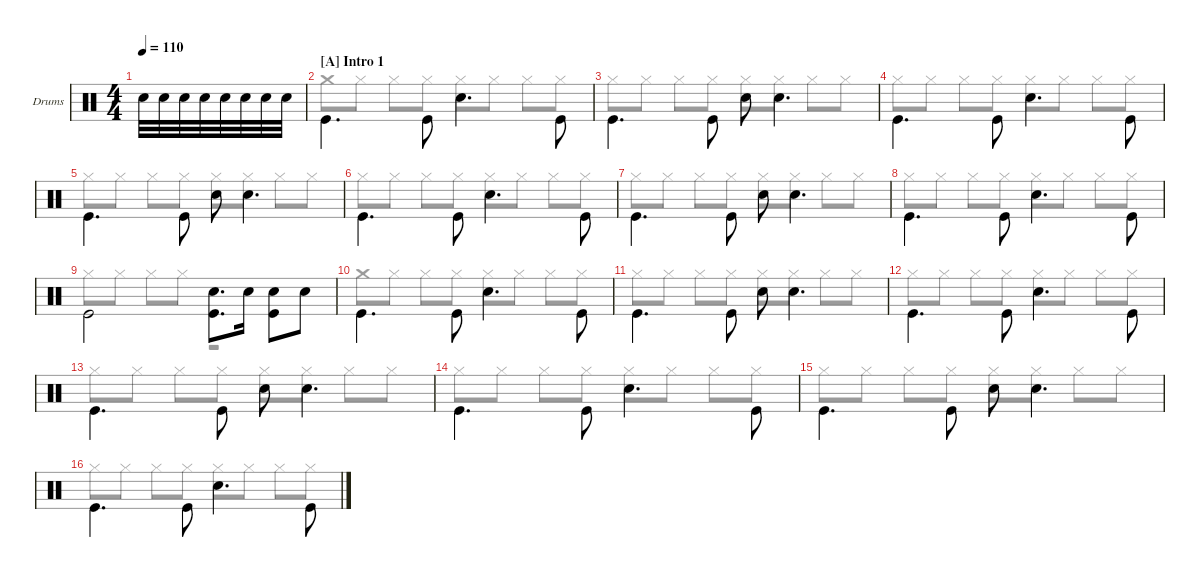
\hideDynamics
\bracketExtendMode groupsimilarinstruments
\multiBarRest
\firstSystemTrackNameOrientation horizontal
\otherSystemsTrackNameOrientation horizontal
\track ("Drumkit" "Drums") {multiBarRest instrument percussion}
\staff {score}
\articulation defaults
\voice
\ts (4 4)
\ac
\tempo 110
\clef neutral
\scale
0.315403
\ks c "Snare (hit) 2".32{dy f} "Snare (hit) 2".32 "Snare (hit) 2".32 "Snare (hit) 2".32 "Snare (hit) 2".32 "Snare (hit) 2".32 "Snare (hit) 2".32 "Snare (hit) 2".32
|
\section ("A" "Intro 1")
\scale
0.342298 "Kick (hit)".4{d beam invert} "Kick (hit)".8{beam invert} "Snare (hit) 2".4{d beam invert} "Kick (hit)".8{beam invert} |
\scale
0.342298 "Kick (hit)".4{d beam invert} "Kick (hit)".8{beam invert} "Snare (hit) 2".8{beam invert} "Snare (hit) 2".4{d beam invert} |
"Kick (hit)".4{d beam invert} "Kick (hit)".8{beam invert} "Snare (hit) 2".4{d beam invert} "Kick (hit)".8{beam invert} |
"Kick (hit)".4{d beam invert} "Kick (hit)".8{beam invert} "Snare (hit) 2".8{beam invert} "Snare (hit) 2".4{d beam invert} |
"Kick (hit)".4{d beam invert} "Kick (hit)".8{beam invert} "Snare (hit) 2".4{d beam invert} "Kick (hit)".8{beam invert} |
"Kick (hit)".4{d beam invert} "Kick (hit)".8{beam invert} "Snare (hit) 2".8{beam invert} "Snare (hit) 2".4{d beam invert} |
"Kick (hit)".4{d beam invert} "Kick (hit)".8{beam invert} "Snare (hit) 2".4{d beam invert} "Kick (hit)".8{beam invert} |
"Kick (hit)".2{beam invert} ("Kick (hit)" "Snare (hit) 2").8{d beam invert} "Snare (hit) 2".16 ("Kick (hit)" "Snare (hit) 2").8{beam invert} "Snare (hit) 2".8 |
"Kick (hit)".4{d beam invert} "Kick (hit)".8 "Snare (hit) 2".4{d beam invert} "Kick (hit)".8{beam invert} |
"Kick (hit)".4{d beam invert} "Kick (hit)".8 "Snare (hit) 2".8{beam invert} "Snare (hit) 2".4{d beam invert} |
"Kick (hit)".4{d beam invert} "Kick (hit)".8{beam invert} "Snare (hit) 2".4{d beam invert} "Kick (hit)".8{beam invert} |
"Kick (hit)".4{d beam invert} "Kick (hit)".8{beam invert} "Snare (hit) 2".8{beam invert} "Snare (hit) 2".4{d beam invert} |
"Kick (hit)".4{d beam invert} "Kick (hit)".8{beam invert} "Snare (hit) 2".4{d beam invert} "Kick (hit)".8{beam invert} |
"Kick (hit)".4{d beam invert} "Kick (hit)".8{beam invert} "Snare (hit) 2".8{beam invert} "Snare (hit) 2".4{d beam invert} |
"Kick (hit)".4{d beam invert} "Kick (hit)".8{beam invert} "Snare (hit) 2".4{d beam invert} "Kick (hit)".8{beam invert}
\voice
\clef neutral
\ottava regular
\simile none
\scale
0.315403
\ks c
|
\scale
0.342298 |
\scale
0.342298 |
|
|
|
|
|
|
|
|
|
|
|
|
\voice
\clef neutral
\ottava regular
\simile none
\scale
0.315403
\ks c
|
\scale
0.342298 |
\scale
0.342298 |
|
|
|
|
|
|
|
|
|
|
|
|
\voice
\clef neutral
\ottava regular
\simile none
\scale
0.315403
\ks c
|
\scale
0.342298 "Crash medium (hit)".8 "Hi-Hat (closed)".8 "Hi-Hat (closed)".8 "Hi-Hat (closed)".8 "Hi-Hat (closed)".8 "Hi-Hat (closed)".8 "Hi-Hat (closed)".8 "Hi-Hat (closed)".8 |
\scale
0.342298 "Hi-Hat (closed)".8 "Hi-Hat (closed)".8 "Hi-Hat (closed)".8 "Hi-Hat (closed)".8 "Hi-Hat (closed)".8 "Hi-Hat (closed)".8 "Hi-Hat (closed)".8 "Hi-Hat (closed)".8 |
"Hi-Hat (closed)".8 "Hi-Hat (closed)".8 "Hi-Hat (closed)".8 "Hi-Hat (closed)".8 "Hi-Hat (closed)".8 "Hi-Hat (closed)".8 "Hi-Hat (closed)".8 "Hi-Hat (closed)".8 |
"Hi-Hat (closed)".8 "Hi-Hat (closed)".8 "Hi-Hat (closed)".8 "Hi-Hat (closed)".8 "Hi-Hat (closed)".8 "Hi-Hat (closed)".8 "Hi-Hat (closed)".8 "Hi-Hat (closed)".8 |
"Hi-Hat (closed)".8 "Hi-Hat (closed)".8 "Hi-Hat (closed)".8 "Hi-Hat (closed)".8 "Hi-Hat (closed)".8 "Hi-Hat (closed)".8 "Hi-Hat (closed)".8 "Hi-Hat (closed)".8 |
"Hi-Hat (closed)".8 "Hi-Hat (closed)".8 "Hi-Hat (closed)".8 "Hi-Hat (closed)".8 "Hi-Hat (closed)".8 "Hi-Hat (closed)".8 "Hi-Hat (closed)".8 "Hi-Hat (closed)".8 |
"Hi-Hat (closed)".8 "Hi-Hat (closed)".8 "Hi-Hat (closed)".8 "Hi-Hat (closed)".8 "Hi-Hat (closed)".8 "Hi-Hat (closed)".8 "Hi-Hat (closed)".8 "Hi-Hat (closed)".8 |
"Hi-Hat (closed)".8 "Hi-Hat (closed)".8 "Hi-Hat (closed)".8 "Hi-Hat (closed)".8 r.2 |
"Crash medium (hit)".8 "Hi-Hat (closed)".8 "Hi-Hat (closed)".8 "Hi-Hat (closed)".8 "Hi-Hat (closed)".8 "Hi-Hat (closed)".8 "Hi-Hat (closed)".8 "Hi-Hat (closed)".8 |
"Hi-Hat (closed)".8 "Hi-Hat (closed)".8 "Hi-Hat (closed)".8 "Hi-Hat (closed)".8 "Hi-Hat (closed)".8 "Hi-Hat (closed)".8 "Hi-Hat (closed)".8 "Hi-Hat (closed)".8 |
"Hi-Hat (closed)".8 "Hi-Hat (closed)".8 "Hi-Hat (closed)".8 "Hi-Hat (closed)".8 "Hi-Hat (closed)".8 "Hi-Hat (closed)".8 "Hi-Hat (closed)".8 "Hi-Hat (closed)".8 |
"Hi-Hat (closed)".8 "Hi-Hat (closed)".8 "Hi-Hat (closed)".8 "Hi-Hat (closed)".8 "Hi-Hat (closed)".8 "Hi-Hat (closed)".8 "Hi-Hat (closed)".8 "Hi-Hat (closed)".8 |
"Hi-Hat (closed)".8 "Hi-Hat (closed)".8 "Hi-Hat (closed)".8 "Hi-Hat (closed)".8 "Hi-Hat (closed)".8 "Hi-Hat (closed)".8 "Hi-Hat (closed)".8 "Hi-Hat (closed)".8 |
"Hi-Hat (closed)".8 "Hi-Hat (closed)".8 "Hi-Hat (closed)".8 "Hi-Hat (closed)".8 "Hi-Hat (closed)".8 "Hi-Hat (closed)".8 "Hi-Hat (closed)".8 "Hi-Hat (closed)".8 |
"Hi-Hat (closed)".8 "Hi-Hat (closed)".8 "Hi-Hat (closed)".8 "Hi-Hat (closed)".8 "Hi-Hat (closed)".8 "Hi-Hat (closed)".8 "Hi-Hat (closed)".8 "Hi-Hat (closed)".8
